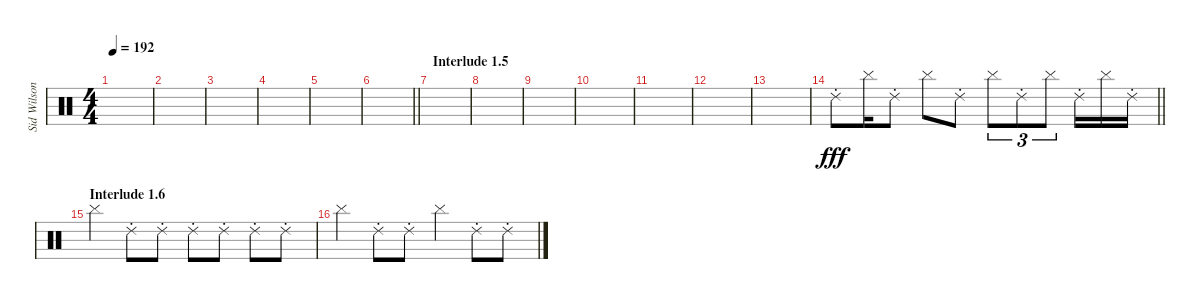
\track ("Sid Wilson" "Sid Wilson") {instrument percussion}
\staff {score}
\articulation defaults
\ts (4 4)
\tempo 192
\clef neutral
\ks c
|
|
|
|
|
\barLineRight lightlight
|
\section ("" "Interlude 1.5")
|
|
|
|
|
|
|
\barLineRight lightlight "Ride (choke) 2".8{dy fff} "Cymbal (hit)".16 "Ride (choke) 2".8 "Cymbal (hit)".8 "Ride (choke) 2".8 "Cymbal (hit)".8{tu (3 2)} "Ride (choke) 2".8{tu (3 2)} "Cymbal (hit)".8{tu (3 2)} "Ride (choke) 2".16 "Cymbal (hit)".16 "Ride (choke) 2".16
|
\section ("" "Interlude 1.6")
"Cymbal (hit)".4 "Ride (choke) 2".8 "Ride (choke) 2".8 "Ride (choke) 2".8 "Ride (choke) 2".8 "Ride (choke) 2".8 "Ride (choke) 2".8 |
"Cymbal (hit)".4 "Ride (choke) 2".8 "Ride (choke) 2".8 "Cymbal (hit)".4 "Ride (choke) 2".8 "Ride (choke) 2".8
